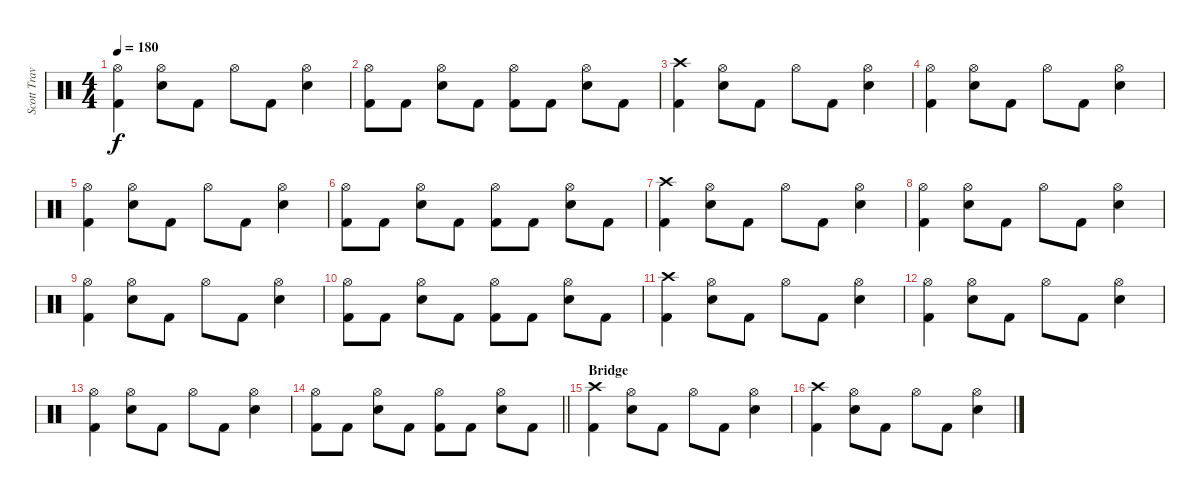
\track ("Scott Travis" "Scott Trav") {instrument percussion}
\staff {score}
\articulation defaults
\ts (4 4)
\tempo 180
\clef neutral
\ks c
("Hi-Hat (open)" "Kick (hit) 2").4{dy f} ("Hi-Hat (open)" "Snare (hit) 2").8 "Kick (hit) 2".8 "Hi-Hat (open)".8 "Kick (hit) 2".8 ("Hi-Hat (open)" "Snare (hit) 2").4 |
("Hi-Hat (open)" "Kick (hit) 2").8 "Kick (hit) 2".8 ("Hi-Hat (open)" "Snare (hit) 2").8 "Kick (hit) 2".8 ("Hi-Hat (open)" "Kick (hit) 2").8 "Kick (hit) 2".8 ("Hi-Hat (open)" "Snare (hit) 2").8 "Kick (hit) 2".8 |
("Crash high (hit)" "Kick (hit) 2").4 ("Hi-Hat (open)" "Snare (hit) 2").8 "Kick (hit) 2".8 "Hi-Hat (open)".8 "Kick (hit) 2".8 ("Hi-Hat (open)" "Snare (hit) 2").4 |
("Hi-Hat (open)" "Kick (hit) 2").4 ("Hi-Hat (open)" "Snare (hit) 2").8 "Kick (hit) 2".8 "Hi-Hat (open)".8 "Kick (hit) 2".8 ("Hi-Hat (open)" "Snare (hit) 2").4 |
("Hi-Hat (open)" "Kick (hit) 2").4 ("Hi-Hat (open)" "Snare (hit) 2").8 "Kick (hit) 2".8 "Hi-Hat (open)".8 "Kick (hit) 2".8 ("Hi-Hat (open)" "Snare (hit) 2").4 |
("Hi-Hat (open)" "Kick (hit) 2").8 "Kick (hit) 2".8 ("Hi-Hat (open)" "Snare (hit) 2").8 "Kick (hit) 2".8 ("Hi-Hat (open)" "Kick (hit) 2").8 "Kick (hit) 2".8 ("Hi-Hat (open)" "Snare (hit) 2").8 "Kick (hit) 2".8 |
("Crash high (hit)" "Kick (hit) 2").4 ("Hi-Hat (open)" "Snare (hit) 2").8 "Kick (hit) 2".8 "Hi-Hat (open)".8 "Kick (hit) 2".8 ("Hi-Hat (open)" "Snare (hit) 2").4 |
("Hi-Hat (open)" "Kick (hit) 2").4 ("Hi-Hat (open)" "Snare (hit) 2").8 "Kick (hit) 2".8 "Hi-Hat (open)".8 "Kick (hit) 2".8 ("Hi-Hat (open)" "Snare (hit) 2").4 |
("Hi-Hat (open)" "Kick (hit) 2").4 ("Hi-Hat (open)" "Snare (hit) 2").8 "Kick (hit) 2".8 "Hi-Hat (open)".8 "Kick (hit) 2".8 ("Hi-Hat (open)" "Snare (hit) 2").4 |
("Hi-Hat (open)" "Kick (hit) 2").8 "Kick (hit) 2".8 ("Hi-Hat (open)" "Snare (hit) 2").8 "Kick (hit) 2".8 ("Hi-Hat (open)" "Kick (hit) 2").8 "Kick (hit) 2".8 ("Hi-Hat (open)" "Snare (hit) 2").8 "Kick (hit) 2".8 |
("Crash high (hit)" "Kick (hit) 2").4 ("Hi-Hat (open)" "Snare (hit) 2").8 "Kick (hit) 2".8 "Hi-Hat (open)".8 "Kick (hit) 2".8 ("Hi-Hat (open)" "Snare (hit) 2").4 |
("Hi-Hat (open)" "Kick (hit) 2").4 ("Hi-Hat (open)" "Snare (hit) 2").8 "Kick (hit) 2".8 "Hi-Hat (open)".8 "Kick (hit) 2".8 ("Hi-Hat (open)" "Snare (hit) 2").4 |
("Hi-Hat (open)" "Kick (hit) 2").4 ("Hi-Hat (open)" "Snare (hit) 2").8 "Kick (hit) 2".8 "Hi-Hat (open)".8 "Kick (hit) 2".8 ("Hi-Hat (open)" "Snare (hit) 2").4 |
\barLineRight lightlight
("Hi-Hat (open)" "Kick (hit) 2").8 "Kick (hit) 2".8 ("Hi-Hat (open)" "Snare (hit) 2").8 "Kick (hit) 2".8 ("Hi-Hat (open)" "Kick (hit) 2").8 "Kick (hit) 2".8 ("Hi-Hat (open)" "Snare (hit) 2").8 "Kick (hit) 2".8 |
\section ("" "Bridge")
("Crash high (hit)" "Kick (hit) 2").4 ("Hi-Hat (open)" "Snare (hit) 2").8 "Kick (hit) 2".8 "Hi-Hat (open)".8 "Kick (hit) 2".8 ("Hi-Hat (open)" "Snare (hit) 2").4 |
("Crash high (hit)" "Kick (hit) 2").4 ("Hi-Hat (open)" "Snare (hit) 2").8 "Kick (hit) 2".8 "Hi-Hat (open)".8 "Kick (hit) 2".8 ("Hi-Hat (open)" "Snare (hit) 2").4
